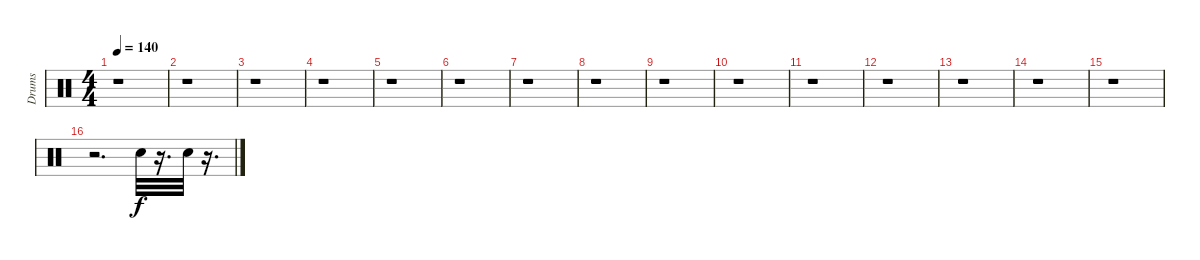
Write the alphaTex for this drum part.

\track ("Drums" "Drums") {instrument percussion}
\staff {score}
\articulation defaults
\ts (4 4)
\tempo 140
\clef neutral
\ks c
r.1{dy f} |
r.1 |
r.1 |
r.1 |
r.1 |
r.1 |
r.1 |
r.1 |
r.1 |
r.1 |
r.1 |
r.1 |
r.1 |
r.1 |
r.1 |
r.2{d} "Electric Snare (hit)".32 r.16{d} "Electric Snare (hit)".32 r.16{d}
